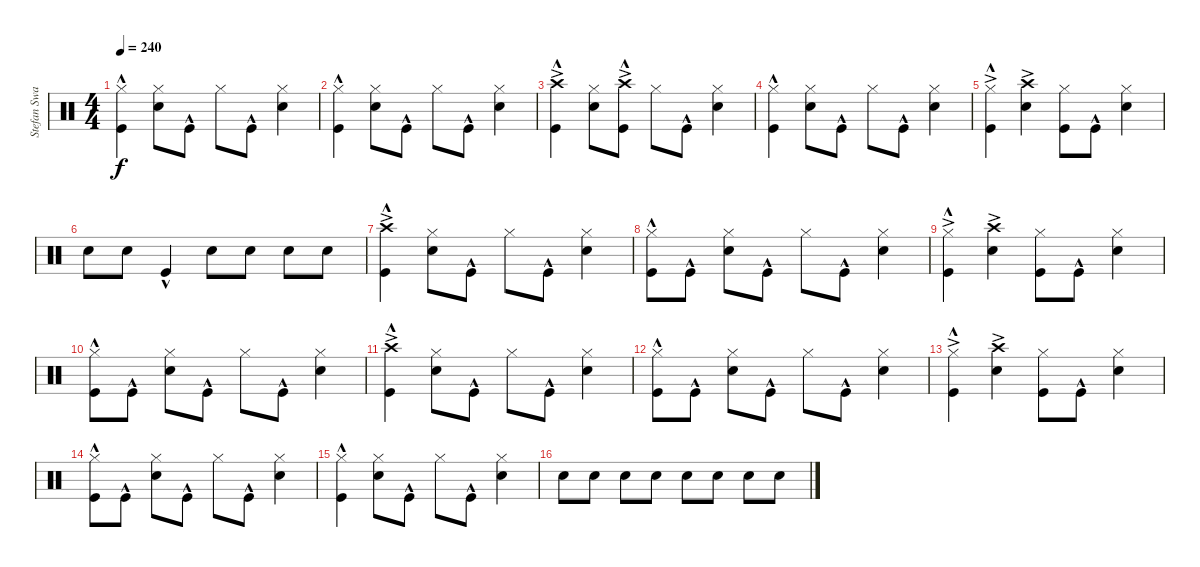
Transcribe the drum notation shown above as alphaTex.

\track ("Stefan Swarztmann" "Stefan Swa") {instrument percussion}
\staff {score}
\articulation defaults
\ts (4 4)
\tempo 240
\clef neutral
\ks c
("Hi-Hat (closed)" "Kick (hit)"{hac}).4{dy f} ("Hi-Hat (closed)" "Snare (hit) 2").8 "Kick (hit)"{hac}.8 "Hi-Hat (closed)".8 "Kick (hit)"{hac}.8 ("Hi-Hat (closed)" "Snare (hit) 2").4 |
("Hi-Hat (closed)" "Kick (hit)"{hac}).4 ("Hi-Hat (closed)" "Snare (hit) 2").8 "Kick (hit)"{hac}.8 "Hi-Hat (closed)".8 "Kick (hit)"{hac}.8 ("Hi-Hat (closed)" "Snare (hit) 2").4 |
("Crash high (hit)"{ac} "Kick (hit)"{hac}).4 ("Hi-Hat (closed)" "Snare (hit) 2").8 ("Crash high (hit)"{ac} "Kick (hit)"{hac}).8 "Hi-Hat (closed)".8 "Kick (hit)"{hac}.8 ("Hi-Hat (closed)" "Snare (hit) 2").4 |
("Hi-Hat (closed)" "Kick (hit)"{hac}).4 ("Hi-Hat (closed)" "Snare (hit) 2").8 "Kick (hit)"{hac}.8 "Hi-Hat (closed)".8 "Kick (hit)"{hac}.8 ("Hi-Hat (closed)" "Snare (hit) 2").4 |
("Hi-Hat (closed)"{ac} "Kick (hit)"{hac}).4 ("Crash high (hit)"{ac} "Snare (hit) 2").4 ("Hi-Hat (closed)" "Kick (hit)").8 "Kick (hit)"{hac}.8 ("Hi-Hat (closed)" "Snare (hit) 2").4 |
"Snare (hit) 2".8 "Snare (hit) 2".8 "Kick (hit)"{hac}.4 "Snare (hit) 2".8 "Snare (hit) 2".8 "Snare (hit) 2".8 "Snare (hit) 2".8 |
("Crash high (hit)"{ac} "Kick (hit)"{hac}).4 ("Hi-Hat (closed)" "Snare (hit) 2").8 "Kick (hit)"{hac}.8 "Hi-Hat (closed)".8 "Kick (hit)"{hac}.8 ("Hi-Hat (closed)" "Snare (hit) 2").4 |
("Hi-Hat (closed)" "Kick (hit)"{hac}).8 "Kick (hit)"{hac}.8 ("Hi-Hat (closed)" "Snare (hit) 2").8 "Kick (hit)"{hac}.8 "Hi-Hat (closed)".8 "Kick (hit)"{hac}.8 ("Hi-Hat (closed)" "Snare (hit) 2").4 |
("Hi-Hat (closed)"{ac} "Kick (hit)"{hac}).4 ("Crash high (hit)"{ac} "Snare (hit) 2").4 ("Hi-Hat (closed)" "Kick (hit)").8 "Kick (hit)"{hac}.8 ("Hi-Hat (closed)" "Snare (hit) 2").4 |
("Hi-Hat (closed)" "Kick (hit)"{hac}).8 "Kick (hit)"{hac}.8 ("Hi-Hat (closed)" "Snare (hit) 2").8 "Kick (hit)"{hac}.8 "Hi-Hat (closed)".8 "Kick (hit)"{hac}.8 ("Hi-Hat (closed)" "Snare (hit) 2").4 |
("Crash high (hit)"{ac} "Kick (hit)"{hac}).4 ("Hi-Hat (closed)" "Snare (hit) 2").8 "Kick (hit)"{hac}.8 "Hi-Hat (closed)".8 "Kick (hit)"{hac}.8 ("Hi-Hat (closed)" "Snare (hit) 2").4 |
("Hi-Hat (closed)" "Kick (hit)"{hac}).8 "Kick (hit)"{hac}.8 ("Hi-Hat (closed)" "Snare (hit) 2").8 "Kick (hit)"{hac}.8 "Hi-Hat (closed)".8 "Kick (hit)"{hac}.8 ("Hi-Hat (closed)" "Snare (hit) 2").4 |
("Hi-Hat (closed)"{ac} "Kick (hit)"{hac}).4 ("Crash high (hit)"{ac} "Snare (hit) 2").4 ("Hi-Hat (closed)" "Kick (hit)").8 "Kick (hit)"{hac}.8 ("Hi-Hat (closed)" "Snare (hit) 2").4 |
("Hi-Hat (closed)" "Kick (hit)"{hac}).8 "Kick (hit)"{hac}.8 ("Hi-Hat (closed)" "Snare (hit) 2").8 "Kick (hit)"{hac}.8 "Hi-Hat (closed)".8 "Kick (hit)"{hac}.8 ("Hi-Hat (closed)" "Snare (hit) 2").4 |
("Hi-Hat (closed)" "Kick (hit)"{hac}).4 ("Hi-Hat (closed)" "Snare (hit) 2").8 "Kick (hit)"{hac}.8 "Hi-Hat (closed)".8 "Kick (hit)"{hac}.8 ("Hi-Hat (closed)" "Snare (hit) 2").4 |
"Snare (hit) 2".8 "Snare (hit) 2".8 "Snare (hit) 2".8 "Snare (hit) 2".8 "Snare (hit) 2".8 "Snare (hit) 2".8 "Snare (hit) 2".8 "Snare (hit) 2".8
